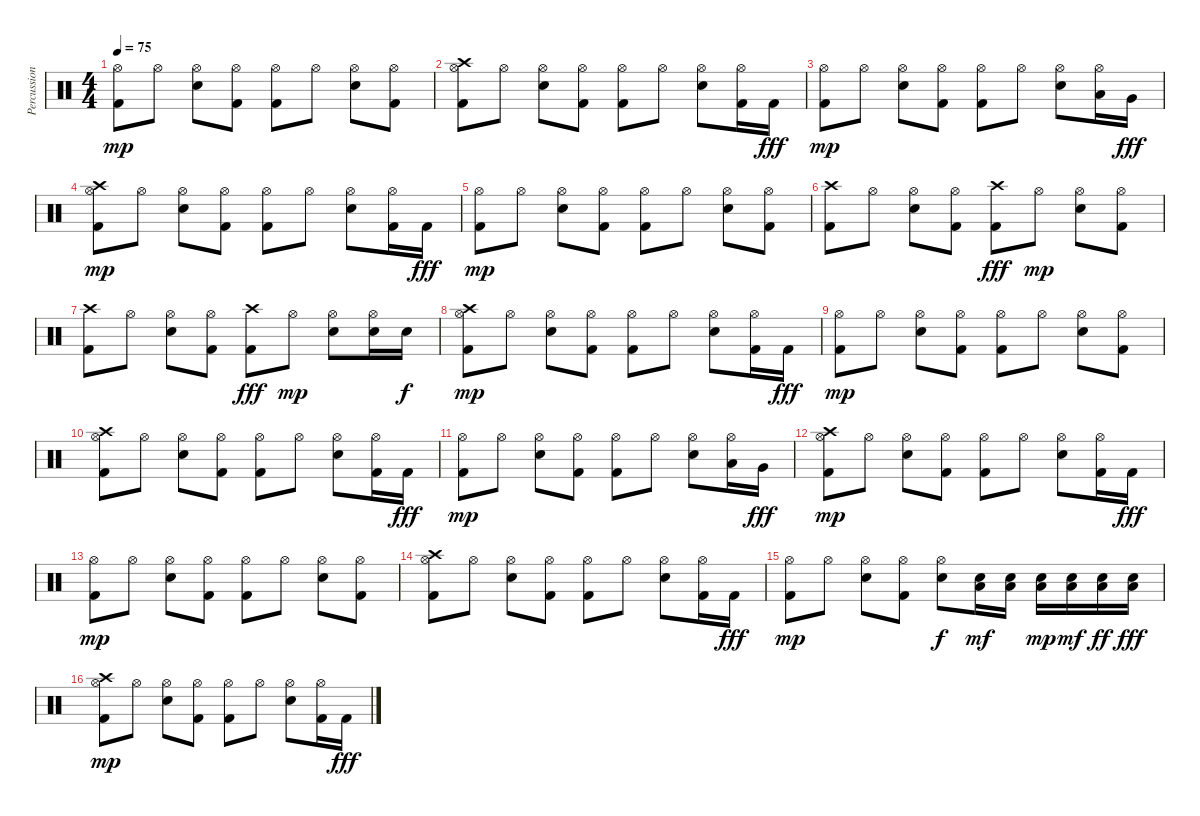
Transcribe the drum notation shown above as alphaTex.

\track ("Percussion" "Percussion") {instrument percussion}
\staff {score}
\articulation defaults
\ts (4 4)
\tempo 75
\clef neutral
\ks c
("Kick (hit) 2" "Hi-Hat (open)").8{dy mp} "Hi-Hat (open)".8 ("Electric Snare (hit)" "Hi-Hat (open)").8 ("Kick (hit) 2" "Hi-Hat (open)").8 ("Kick (hit) 2" "Hi-Hat (open)").8 "Hi-Hat (open)".8 ("Electric Snare (hit)" "Hi-Hat (open)").8 ("Kick (hit) 2" "Hi-Hat (open)").8 |
("Kick (hit) 2" "Hi-Hat (open)" "Crash high (hit)").8 "Hi-Hat (open)".8 ("Electric Snare (hit)" "Hi-Hat (open)").8 ("Kick (hit) 2" "Hi-Hat (open)").8 ("Kick (hit) 2" "Hi-Hat (open)").8 "Hi-Hat (open)".8 ("Electric Snare (hit)" "Hi-Hat (open)").8 ("Kick (hit) 2" "Hi-Hat (open)").16 "Kick (hit) 2".16{dy fff} |
("Kick (hit) 2" "Hi-Hat (open)").8{dy mp} "Hi-Hat (open)".8 ("Electric Snare (hit)" "Hi-Hat (open)").8 ("Kick (hit) 2" "Hi-Hat (open)").8 ("Kick (hit) 2" "Hi-Hat (open)").8 "Hi-Hat (open)".8 ("Electric Snare (hit)" "Hi-Hat (open)").8 ("Low Tom (hit)" "Hi-Hat (open)").16 "Very Low Tom (hit)".16{dy fff} |
("Kick (hit) 2" "Hi-Hat (open)" "Crash high (hit)").8{dy mp} "Hi-Hat (open)".8 ("Electric Snare (hit)" "Hi-Hat (open)").8 ("Kick (hit) 2" "Hi-Hat (open)").8 ("Kick (hit) 2" "Hi-Hat (open)").8 "Hi-Hat (open)".8 ("Electric Snare (hit)" "Hi-Hat (open)").8 ("Kick (hit) 2" "Hi-Hat (open)").16 "Kick (hit) 2".16{dy fff} |
("Kick (hit) 2" "Hi-Hat (open)").8{dy mp} "Hi-Hat (open)".8 ("Electric Snare (hit)" "Hi-Hat (open)").8 ("Kick (hit) 2" "Hi-Hat (open)").8 ("Kick (hit) 2" "Hi-Hat (open)").8 "Hi-Hat (open)".8 ("Electric Snare (hit)" "Hi-Hat (open)").8 ("Kick (hit) 2" "Hi-Hat (open)").8 |
("Kick (hit) 2" "Crash high (hit)").8 "Hi-Hat (open)".8 ("Electric Snare (hit)" "Hi-Hat (open)").8 ("Kick (hit) 2" "Hi-Hat (open)").8 ("Kick (hit) 2" "Crash high (hit)").8{dy fff} "Hi-Hat (open)".8{dy mp} ("Electric Snare (hit)" "Hi-Hat (open)").8 ("Kick (hit) 2" "Hi-Hat (open)").8 |
("Kick (hit) 2" "Crash high (hit)").8 "Hi-Hat (open)".8 ("Electric Snare (hit)" "Hi-Hat (open)").8 ("Kick (hit) 2" "Hi-Hat (open)").8 ("Kick (hit) 2" "Crash high (hit)").8{dy fff} "Hi-Hat (open)".8{dy mp} ("Electric Snare (hit)" "Hi-Hat (open)").8 ("Electric Snare (hit)" "Hi-Hat (open)").16 "Electric Snare (hit)".16{dy f} |
("Kick (hit) 2" "Hi-Hat (open)" "Crash high (hit)").8{dy mp} "Hi-Hat (open)".8 ("Electric Snare (hit)" "Hi-Hat (open)").8 ("Kick (hit) 2" "Hi-Hat (open)").8 ("Kick (hit) 2" "Hi-Hat (open)").8 "Hi-Hat (open)".8 ("Electric Snare (hit)" "Hi-Hat (open)").8 ("Kick (hit) 2" "Hi-Hat (open)").16 "Kick (hit) 2".16{dy fff} |
("Kick (hit) 2" "Hi-Hat (open)").8{dy mp} "Hi-Hat (open)".8 ("Electric Snare (hit)" "Hi-Hat (open)").8 ("Kick (hit) 2" "Hi-Hat (open)").8 ("Kick (hit) 2" "Hi-Hat (open)").8 "Hi-Hat (open)".8 ("Electric Snare (hit)" "Hi-Hat (open)").8 ("Kick (hit) 2" "Hi-Hat (open)").8 |
("Kick (hit) 2" "Hi-Hat (open)" "Crash high (hit)").8 "Hi-Hat (open)".8 ("Electric Snare (hit)" "Hi-Hat (open)").8 ("Kick (hit) 2" "Hi-Hat (open)").8 ("Kick (hit) 2" "Hi-Hat (open)").8 "Hi-Hat (open)".8 ("Electric Snare (hit)" "Hi-Hat (open)").8 ("Kick (hit) 2" "Hi-Hat (open)").16 "Kick (hit) 2".16{dy fff} |
("Kick (hit) 2" "Hi-Hat (open)").8{dy mp} "Hi-Hat (open)".8 ("Electric Snare (hit)" "Hi-Hat (open)").8 ("Kick (hit) 2" "Hi-Hat (open)").8 ("Kick (hit) 2" "Hi-Hat (open)").8 "Hi-Hat (open)".8 ("Electric Snare (hit)" "Hi-Hat (open)").8 ("Low Tom (hit)" "Hi-Hat (open)").16 "Very Low Tom (hit)".16{dy fff} |
("Kick (hit) 2" "Hi-Hat (open)" "Crash high (hit)").8{dy mp} "Hi-Hat (open)".8 ("Electric Snare (hit)" "Hi-Hat (open)").8 ("Kick (hit) 2" "Hi-Hat (open)").8 ("Kick (hit) 2" "Hi-Hat (open)").8 "Hi-Hat (open)".8 ("Electric Snare (hit)" "Hi-Hat (open)").8 ("Kick (hit) 2" "Hi-Hat (open)").16 "Kick (hit) 2".16{dy fff} |
("Kick (hit) 2" "Hi-Hat (open)").8{dy mp} "Hi-Hat (open)".8 ("Electric Snare (hit)" "Hi-Hat (open)").8 ("Kick (hit) 2" "Hi-Hat (open)").8 ("Kick (hit) 2" "Hi-Hat (open)").8 "Hi-Hat (open)".8 ("Electric Snare (hit)" "Hi-Hat (open)").8 ("Kick (hit) 2" "Hi-Hat (open)").8 |
("Kick (hit) 2" "Hi-Hat (open)" "Crash high (hit)").8 "Hi-Hat (open)".8 ("Electric Snare (hit)" "Hi-Hat (open)").8 ("Kick (hit) 2" "Hi-Hat (open)").8 ("Kick (hit) 2" "Hi-Hat (open)").8 "Hi-Hat (open)".8 ("Electric Snare (hit)" "Hi-Hat (open)").8 ("Kick (hit) 2" "Hi-Hat (open)").16 "Kick (hit) 2".16{dy fff} |
("Kick (hit) 2" "Hi-Hat (open)").8{dy mp} "Hi-Hat (open)".8 ("Electric Snare (hit)" "Hi-Hat (open)").8 ("Kick (hit) 2" "Hi-Hat (open)").8 ("Electric Snare (hit)" "Hi-Hat (open)").8{dy f} ("Electric Snare (hit)" "Low Tom (hit)").16{dy mf} ("Electric Snare (hit)" "Low Tom (hit)").16 ("Electric Snare (hit)" "Low Tom (hit)").16{dy mp} ("Electric Snare (hit)" "Low Tom (hit)").16{dy mf} ("Electric Snare (hit)" "Low Tom (hit)").16{dy ff} ("Electric Snare (hit)" "Low Tom (hit)").16{dy fff} |
("Kick (hit) 2" "Hi-Hat (open)" "Crash high (hit)").8{dy mp} "Hi-Hat (open)".8 ("Electric Snare (hit)" "Hi-Hat (open)").8 ("Kick (hit) 2" "Hi-Hat (open)").8 ("Kick (hit) 2" "Hi-Hat (open)").8 "Hi-Hat (open)".8 ("Electric Snare (hit)" "Hi-Hat (open)").8 ("Kick (hit) 2" "Hi-Hat (open)").16 "Kick (hit) 2".16{dy fff}
